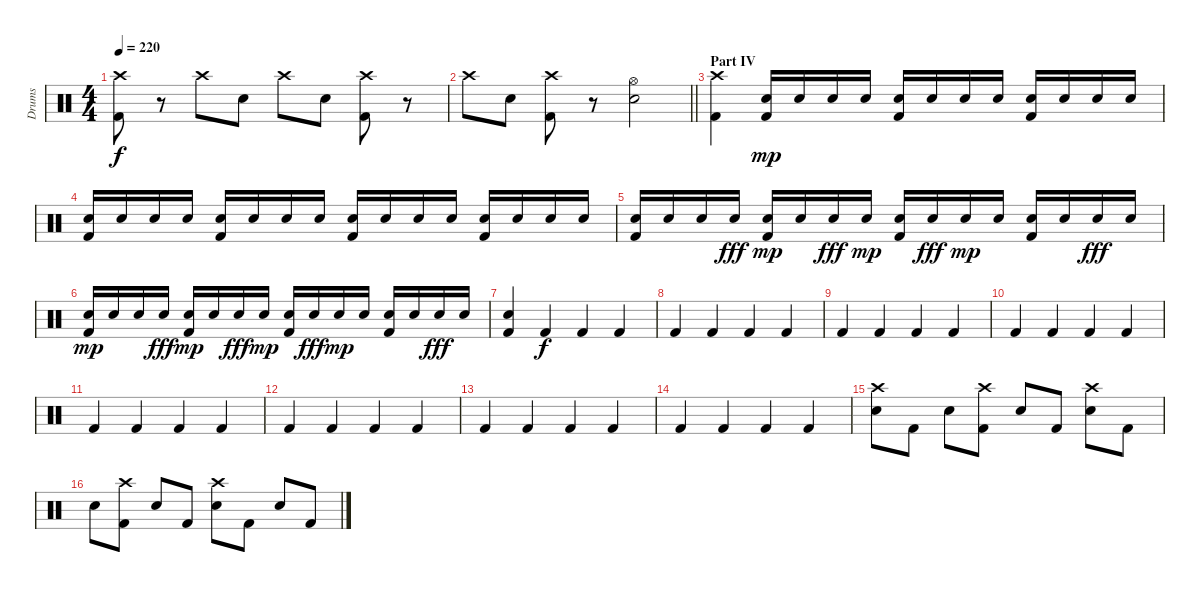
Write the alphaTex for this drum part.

\track ("Drums" "Drums") {instrument percussion}
\staff {score}
\articulation defaults
\ts (4 4)
\tempo 220
\clef neutral
\ks c
("Crash high (hit)" "Kick (hit) 2").8{dy f} r.8 "Crash high (hit)".8 "Electric Snare (hit)".8 "Crash high (hit)".8 "Electric Snare (hit)".8 ("Crash high (hit)" "Kick (hit) 2").8 r.8 |
\barLineRight lightlight "Crash high (hit)".8 "Electric Snare (hit)".8
("Crash high (hit)" "Kick (hit) 2").8 r.8 ("Hi-Hat (open)" "Electric Snare (hit)").2 |
\section ("" "Part IV")
("Crash high (hit)" "Kick (hit) 2").4 ("Electric Snare (hit)" "Kick (hit) 2").16{dy mp} "Electric Snare (hit)".16 "Electric Snare (hit)".16 "Electric Snare (hit)".16 ("Electric Snare (hit)" "Kick (hit) 2").16 "Electric Snare (hit)".16 "Electric Snare (hit)".16 "Electric Snare (hit)".16 ("Electric Snare (hit)" "Kick (hit) 2").16 "Electric Snare (hit)".16 "Electric Snare (hit)".16 "Electric Snare (hit)".16 |
("Electric Snare (hit)" "Kick (hit) 2").16 "Electric Snare (hit)".16 "Electric Snare (hit)".16 "Electric Snare (hit)".16 ("Electric Snare (hit)" "Kick (hit) 2").16 "Electric Snare (hit)".16 "Electric Snare (hit)".16 "Electric Snare (hit)".16 ("Electric Snare (hit)" "Kick (hit) 2").16 "Electric Snare (hit)".16 "Electric Snare (hit)".16 "Electric Snare (hit)".16 ("Electric Snare (hit)" "Kick (hit) 2").16 "Electric Snare (hit)".16 "Electric Snare (hit)".16 "Electric Snare (hit)".16 |
("Electric Snare (hit)" "Kick (hit) 2").16 "Electric Snare (hit)".16 "Electric Snare (hit)".16 "Electric Snare (hit)".16{dy fff} ("Electric Snare (hit)" "Kick (hit) 2").16{dy mp} "Electric Snare (hit)".16 "Electric Snare (hit)".16{dy fff} "Electric Snare (hit)".16{dy mp} ("Electric Snare (hit)" "Kick (hit) 2").16 "Electric Snare (hit)".16{dy fff} "Electric Snare (hit)".16{dy mp} "Electric Snare (hit)".16 ("Electric Snare (hit)" "Kick (hit) 2").16 "Electric Snare (hit)".16 "Electric Snare (hit)".16{dy fff} "Electric Snare (hit)".16 |
("Electric Snare (hit)" "Kick (hit) 2").16{dy mp} "Electric Snare (hit)".16 "Electric Snare (hit)".16 "Electric Snare (hit)".16{dy fff} ("Electric Snare (hit)" "Kick (hit) 2").16{dy mp} "Electric Snare (hit)".16 "Electric Snare (hit)".16{dy fff} "Electric Snare (hit)".16{dy mp} ("Electric Snare (hit)" "Kick (hit) 2").16 "Electric Snare (hit)".16{dy fff} "Electric Snare (hit)".16{dy mp} "Electric Snare (hit)".16 ("Electric Snare (hit)" "Kick (hit) 2").16 "Electric Snare (hit)".16 "Electric Snare (hit)".16{dy fff} "Electric Snare (hit)".16 |
("Electric Snare (hit)" "Kick (hit) 2").4 "Kick (hit) 2".4{dy f} "Kick (hit) 2".4 "Kick (hit) 2".4 |
"Kick (hit) 2".4 "Kick (hit) 2".4 "Kick (hit) 2".4 "Kick (hit) 2".4 |
"Kick (hit) 2".4 "Kick (hit) 2".4 "Kick (hit) 2".4 "Kick (hit) 2".4 |
"Kick (hit) 2".4 "Kick (hit) 2".4 "Kick (hit) 2".4 "Kick (hit) 2".4 |
"Kick (hit) 2".4 "Kick (hit) 2".4 "Kick (hit) 2".4 "Kick (hit) 2".4 |
"Kick (hit) 2".4 "Kick (hit) 2".4 "Kick (hit) 2".4 "Kick (hit) 2".4 |
"Kick (hit) 2".4 "Kick (hit) 2".4 "Kick (hit) 2".4 "Kick (hit) 2".4 |
"Kick (hit) 2".4 "Kick (hit) 2".4 "Kick (hit) 2".4 "Kick (hit) 2".4 |
("Crash high (hit)" "Electric Snare (hit)").8 "Kick (hit) 2".8 "Electric Snare (hit)".8 ("Crash high (hit)" "Kick (hit) 2").8 "Electric Snare (hit)".8 "Kick (hit) 2".8 ("Crash high (hit)" "Electric Snare (hit)").8 "Kick (hit) 2".8 |
"Electric Snare (hit)".8 ("Crash high (hit)" "Kick (hit) 2").8 "Electric Snare (hit)".8 "Kick (hit) 2".8 ("Crash high (hit)" "Electric Snare (hit)").8 "Kick (hit) 2".8 "Electric Snare (hit)".8 "Kick (hit) 2".8
